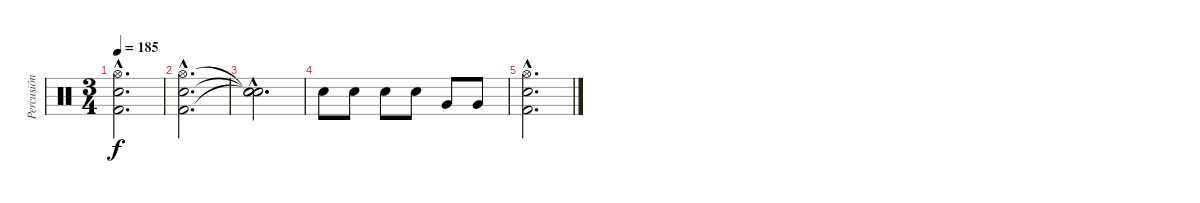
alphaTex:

\track ("Percusión" "Percusión") {instrument percussion}
\staff {score}
\articulation defaults
\ts (3 4)
\tempo 185
\clef neutral
\ks c
("Hi-Hat (open)"{hac} "Electric Snare (hit)"{hac} "Kick (hit) 2"{hac}).2{d dy f} |
("Hi-Hat (open)"{hac} "Electric Snare (hit)"{hac} "Kick (hit) 2"{hac}).2{d} |
("Snare (hit)"{hac t} "Snare (hit)"{hac t} "Snare (hit)"{hac t}).2{d} |
"Electric Snare (hit)".8 "Electric Snare (hit)".8 "Electric Snare (hit)".8 "Electric Snare (hit)".8 "Very Low Tom (hit)".8 "Very Low Tom (hit)".8 |
("Hi-Hat (open)"{hac} "Electric Snare (hit)"{hac} "Kick (hit) 2"{hac}).2{d}
